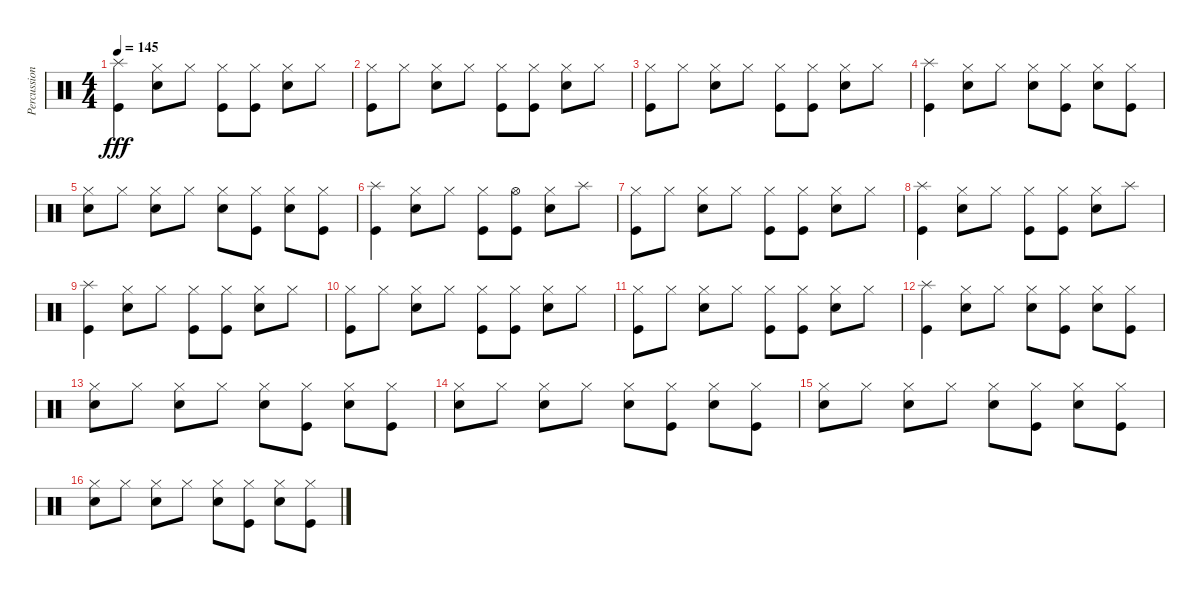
\track ("Percussion" "Percussion") {instrument percussion}
\staff {score}
\articulation defaults
\ts (4 4)
\tempo 145
\clef neutral
\ks c
("Splash (hit)" "Kick (hit)").4{dy fff} ("Hi-Hat (closed)" "Snare (hit) 2").8 "Hi-Hat (closed)".8 ("Hi-Hat (closed)" "Kick (hit)").8 ("Hi-Hat (closed)" "Kick (hit)").8 ("Hi-Hat (closed)" "Snare (hit) 2").8 "Hi-Hat (closed)".8 |
("Hi-Hat (closed)" "Kick (hit)").8 "Hi-Hat (closed)".8 ("Hi-Hat (closed)" "Snare (hit) 2").8 "Hi-Hat (closed)".8 ("Hi-Hat (closed)" "Kick (hit)").8 ("Hi-Hat (closed)" "Kick (hit)").8 ("Hi-Hat (closed)" "Snare (hit) 2").8 "Hi-Hat (closed)".8 |
("Hi-Hat (closed)" "Kick (hit)").8 "Hi-Hat (closed)".8 ("Hi-Hat (closed)" "Snare (hit) 2").8 "Hi-Hat (closed)".8 ("Hi-Hat (closed)" "Kick (hit)").8 ("Hi-Hat (closed)" "Kick (hit)").8 ("Hi-Hat (closed)" "Snare (hit) 2").8 "Hi-Hat (closed)".8 |
("Splash (hit)" "Kick (hit)").4 ("Hi-Hat (closed)" "Snare (hit) 2").8 "Hi-Hat (closed)".8 ("Hi-Hat (closed)" "Snare (hit) 2").8 ("Hi-Hat (closed)" "Kick (hit)").8 ("Hi-Hat (closed)" "Snare (hit) 2").8 ("Hi-Hat (closed)" "Kick (hit)").8 |
("Hi-Hat (closed)" "Snare (hit) 2").8 "Hi-Hat (closed)".8 ("Hi-Hat (closed)" "Snare (hit) 2").8 "Hi-Hat (closed)".8 ("Hi-Hat (closed)" "Snare (hit) 2").8 ("Hi-Hat (closed)" "Kick (hit)").8 ("Hi-Hat (closed)" "Snare (hit) 2").8 ("Hi-Hat (closed)" "Kick (hit)").8 |
("Splash (hit)" "Kick (hit)").4 ("Hi-Hat (closed)" "Snare (hit) 2").8 "Hi-Hat (closed)".8 ("Hi-Hat (closed)" "Kick (hit)").8 ("Hi-Hat (open)" "Kick (hit)").8 ("Hi-Hat (closed)" "Snare (hit) 2").8 "Splash (hit)".8 |
("Hi-Hat (closed)" "Kick (hit)").8 "Hi-Hat (closed)".8 ("Hi-Hat (closed)" "Snare (hit) 2").8 "Hi-Hat (closed)".8 ("Hi-Hat (closed)" "Kick (hit)").8 ("Hi-Hat (closed)" "Kick (hit)").8 ("Hi-Hat (closed)" "Snare (hit) 2").8 "Hi-Hat (closed)".8 |
("Splash (hit)" "Kick (hit)").4 ("Hi-Hat (closed)" "Snare (hit) 2").8 "Hi-Hat (closed)".8 ("Hi-Hat (closed)" "Kick (hit)").8 ("Hi-Hat (closed)" "Kick (hit)").8 ("Hi-Hat (closed)" "Snare (hit) 2").8 "Splash (hit)".8 |
("Splash (hit)" "Kick (hit)").4 ("Hi-Hat (closed)" "Snare (hit) 2").8 "Hi-Hat (closed)".8 ("Hi-Hat (closed)" "Kick (hit)").8 ("Hi-Hat (closed)" "Kick (hit)").8 ("Hi-Hat (closed)" "Snare (hit) 2").8 "Hi-Hat (closed)".8 |
("Hi-Hat (closed)" "Kick (hit)").8 "Hi-Hat (closed)".8 ("Hi-Hat (closed)" "Snare (hit) 2").8 "Hi-Hat (closed)".8 ("Hi-Hat (closed)" "Kick (hit)").8 ("Hi-Hat (closed)" "Kick (hit)").8 ("Hi-Hat (closed)" "Snare (hit) 2").8 "Hi-Hat (closed)".8 |
("Hi-Hat (closed)" "Kick (hit)").8 "Hi-Hat (closed)".8 ("Hi-Hat (closed)" "Snare (hit) 2").8 "Hi-Hat (closed)".8 ("Hi-Hat (closed)" "Kick (hit)").8 ("Hi-Hat (closed)" "Kick (hit)").8 ("Hi-Hat (closed)" "Snare (hit) 2").8 "Hi-Hat (closed)".8 |
("Splash (hit)" "Kick (hit)").4 ("Hi-Hat (closed)" "Snare (hit) 2").8 "Hi-Hat (closed)".8 ("Hi-Hat (closed)" "Snare (hit) 2").8 ("Hi-Hat (closed)" "Kick (hit)").8 ("Hi-Hat (closed)" "Snare (hit) 2").8 ("Hi-Hat (closed)" "Kick (hit)").8 |
("Hi-Hat (closed)" "Snare (hit) 2").8 "Hi-Hat (closed)".8 ("Hi-Hat (closed)" "Snare (hit) 2").8 "Hi-Hat (closed)".8 ("Hi-Hat (closed)" "Snare (hit) 2").8 ("Hi-Hat (closed)" "Kick (hit)").8 ("Hi-Hat (closed)" "Snare (hit) 2").8 ("Hi-Hat (closed)" "Kick (hit)").8 |
("Hi-Hat (closed)" "Snare (hit) 2").8 "Hi-Hat (closed)".8 ("Hi-Hat (closed)" "Snare (hit) 2").8 "Hi-Hat (closed)".8 ("Hi-Hat (closed)" "Snare (hit) 2").8 ("Hi-Hat (closed)" "Kick (hit)").8 ("Hi-Hat (closed)" "Snare (hit) 2").8 ("Hi-Hat (closed)" "Kick (hit)").8 |
("Hi-Hat (closed)" "Snare (hit) 2").8 "Hi-Hat (closed)".8 ("Hi-Hat (closed)" "Snare (hit) 2").8 "Hi-Hat (closed)".8 ("Hi-Hat (closed)" "Snare (hit) 2").8 ("Hi-Hat (closed)" "Kick (hit)").8 ("Hi-Hat (closed)" "Snare (hit) 2").8 ("Hi-Hat (closed)" "Kick (hit)").8 |
("Hi-Hat (closed)" "Snare (hit) 2").8 "Hi-Hat (closed)".8 ("Hi-Hat (closed)" "Snare (hit) 2").8 "Hi-Hat (closed)".8 ("Hi-Hat (closed)" "Snare (hit) 2").8 ("Hi-Hat (closed)" "Kick (hit)").8 ("Hi-Hat (closed)" "Snare (hit) 2").8 ("Hi-Hat (closed)" "Kick (hit)").8
